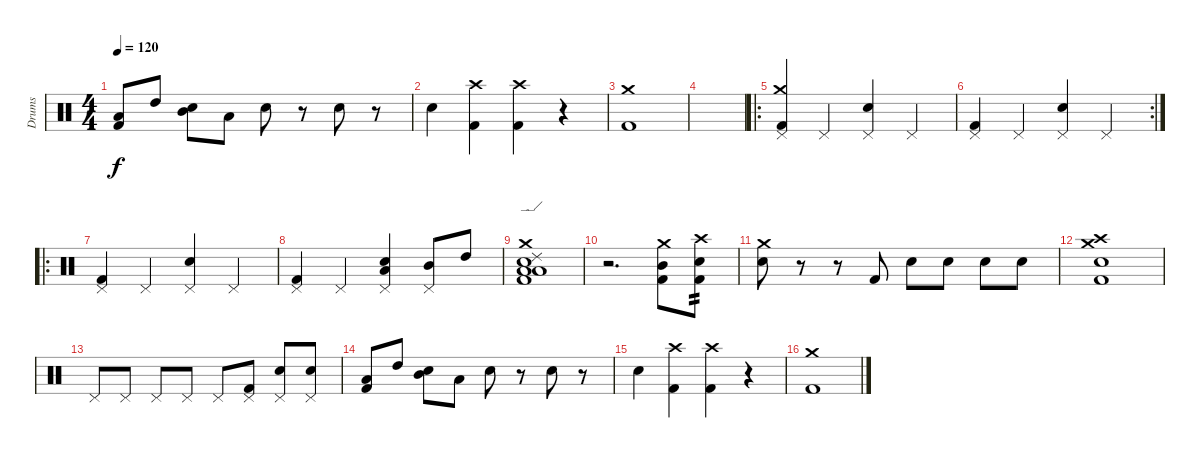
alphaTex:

\track ("Drums" "Drums") {instrument percussion}
\staff {score}
\articulation defaults
\ts (4 4)
\tempo 120
\clef neutral
\ks c
("Kick (hit) 2" "Low Floor Tom (hit)").8{dy f} "High Tom (hit)".8 ("Snare (hit) 2" "Mid Tom (hit)").8 "Low Tom (hit)".8 "Snare (hit) 2".8 r.8 "Snare (hit) 2".8 r.8 |
"Snare (hit) 2".4 ("Kick (hit) 2" "Crash high (hit)").4 ("Kick (hit) 2" "Crash high (hit)").4 r.4 |
("Kick (hit) 2" "Crash medium (hit)").1 |
|
\ro
("Kick (hit) 2" "Pedal Hi-Hat (hit)" "Crash medium (hit)").4 "Pedal Hi-Hat (hit)".4 ("Snare (hit) 2" "Pedal Hi-Hat (hit)").4 "Pedal Hi-Hat (hit)".4 |
\rc 2
("Kick (hit) 2" "Pedal Hi-Hat (hit)").4 "Pedal Hi-Hat (hit)".4 ("Snare (hit) 2" "Pedal Hi-Hat (hit)").4 "Pedal Hi-Hat (hit)".4 |
\ro
("Kick (hit) 2" "Pedal Hi-Hat (hit)").4 "Pedal Hi-Hat (hit)".4 ("Snare (hit) 2" "Pedal Hi-Hat (hit)").4 "Pedal Hi-Hat (hit)".4 |
("Kick (hit) 2" "Pedal Hi-Hat (hit)").4 "Pedal Hi-Hat (hit)".4 ("Snare (hit) 2" "Low Floor Tom (hit)" "Pedal Hi-Hat (hit)").4 ("Mid Tom (hit)" "Pedal Hi-Hat (hit)").8 "High Tom (hit)".8 |
("Snare (hit) 2" "Kick (hit) 2" "Crash medium (hit)" "Ride (edge) 2" "Low Floor Tom (hit)" "Low Tom (hit)").1 |
r.2{d} ("Kick (hit) 2" "Mid Tom (hit)" "Crash medium (hit)").8 ("Snare (hit) 2" "Kick (hit) 2" "Crash high (hit)").8{tp 2} |
("Snare (hit) 2" "Crash medium (hit)").8 r.8 r.8 "Kick (hit) 2".8 "Snare (hit) 2".8 "Snare (hit) 2".8 "Snare (hit) 2".8 "Snare (hit) 2".8 |
("Kick (hit) 2" "Snare (hit) 2" "Crash medium (hit)" "Crash high (hit)").1 |
"Pedal Hi-Hat (hit)".8 "Pedal Hi-Hat (hit)".8 "Pedal Hi-Hat (hit)".8 "Pedal Hi-Hat (hit)".8 "Pedal Hi-Hat (hit)".8 ("Kick (hit) 2" "Pedal Hi-Hat (hit)").8 ("Snare (hit) 2" "Pedal Hi-Hat (hit)").8 ("Snare (hit) 2" "Pedal Hi-Hat (hit)").8 |
("Kick (hit) 2" "Low Floor Tom (hit)").8 "High Tom (hit)".8 ("Snare (hit) 2" "Mid Tom (hit)").8 "Low Tom (hit)".8 "Snare (hit) 2".8 r.8 "Snare (hit) 2".8 r.8 |
"Snare (hit) 2".4 ("Kick (hit) 2" "Crash high (hit)").4 ("Kick (hit) 2" "Crash high (hit)").4 r.4 |
("Kick (hit) 2" "Crash medium (hit)").1
